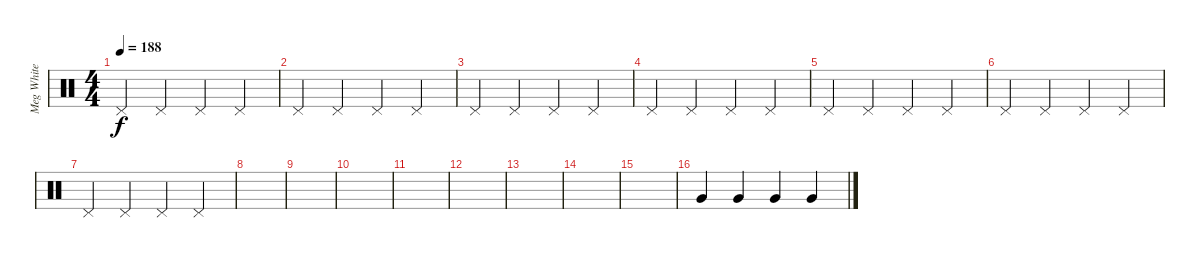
\track ("Meg White" "Meg White") {instrument percussion}
\staff {score}
\articulation defaults
\ts (4 4)
\tempo 188
\clef neutral
\ks c "Pedal Hi-Hat (hit)".4{dy f} "Pedal Hi-Hat (hit)".4 "Pedal Hi-Hat (hit)".4 "Pedal Hi-Hat (hit)".4
|
"Pedal Hi-Hat (hit)".4 "Pedal Hi-Hat (hit)".4 "Pedal Hi-Hat (hit)".4 "Pedal Hi-Hat (hit)".4 |
"Pedal Hi-Hat (hit)".4 "Pedal Hi-Hat (hit)".4 "Pedal Hi-Hat (hit)".4 "Pedal Hi-Hat (hit)".4 |
"Pedal Hi-Hat (hit)".4 "Pedal Hi-Hat (hit)".4 "Pedal Hi-Hat (hit)".4 "Pedal Hi-Hat (hit)".4 |
"Pedal Hi-Hat (hit)".4 "Pedal Hi-Hat (hit)".4 "Pedal Hi-Hat (hit)".4 "Pedal Hi-Hat (hit)".4 |
"Pedal Hi-Hat (hit)".4 "Pedal Hi-Hat (hit)".4 "Pedal Hi-Hat (hit)".4 "Pedal Hi-Hat (hit)".4 |
"Pedal Hi-Hat (hit)".4 "Pedal Hi-Hat (hit)".4 "Pedal Hi-Hat (hit)".4 "Pedal Hi-Hat (hit)".4 |
|
|
|
|
|
|
|
|
"Very Low Tom (hit)".4 "Very Low Tom (hit)".4 "Very Low Tom (hit)".4 "Very Low Tom (hit)".4
